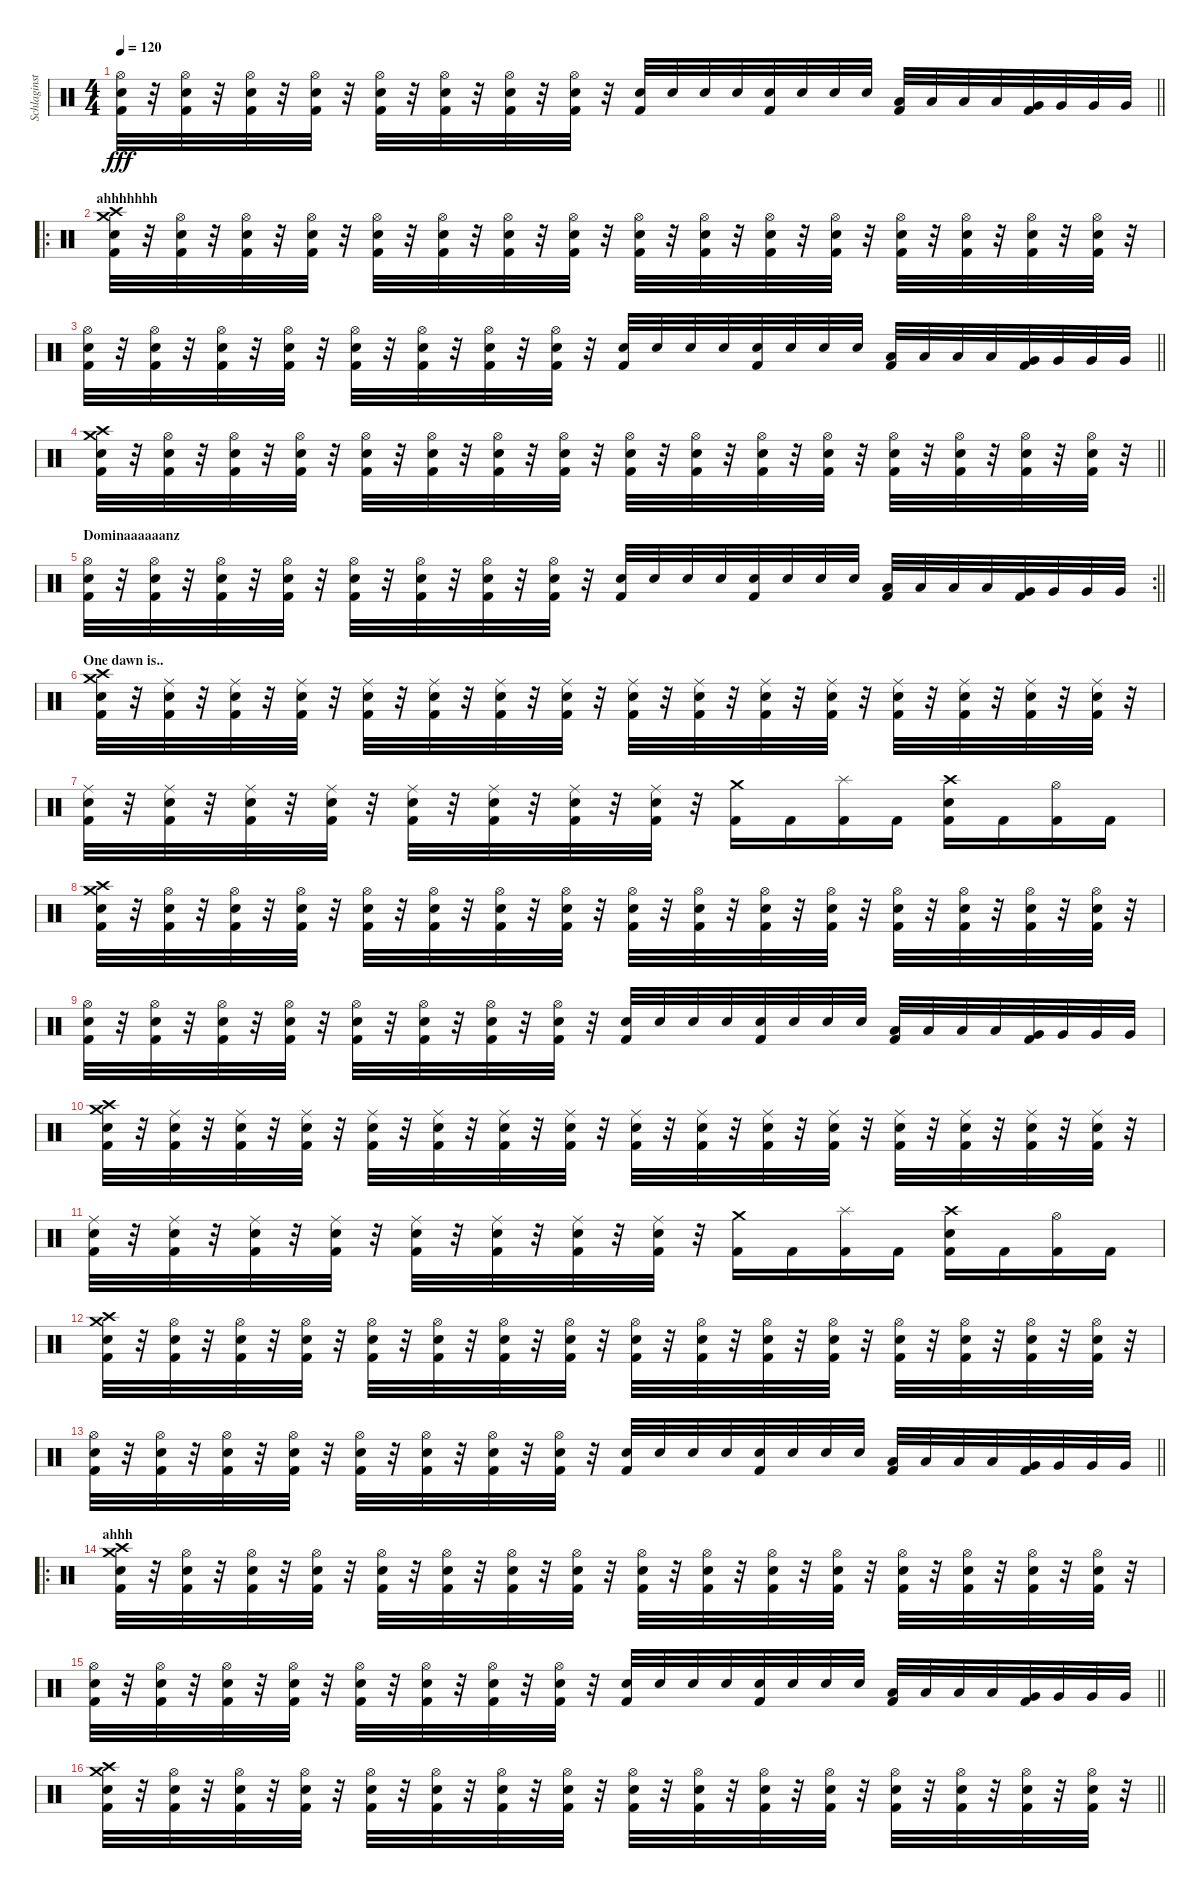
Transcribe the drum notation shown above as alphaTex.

\track ("Schlaginstrumente - Auswahl" "Schlaginst") {instrument percussion}
\staff {score}
\articulation defaults
\ts (4 4)
\tempo 120
\clef neutral
\barLineRight lightlight
\ks c
("Hi-Hat (open)" "Electric Snare (hit)" "Kick (hit) 2").32{dy fff} r.32 ("Hi-Hat (open)" "Electric Snare (hit)" "Kick (hit) 2").32 r.32 ("Hi-Hat (open)" "Electric Snare (hit)" "Kick (hit) 2").32 r.32 ("Hi-Hat (open)" "Electric Snare (hit)" "Kick (hit) 2").32 r.32 ("Hi-Hat (open)" "Electric Snare (hit)" "Kick (hit) 2").32 r.32 ("Hi-Hat (open)" "Electric Snare (hit)" "Kick (hit) 2").32 r.32 ("Hi-Hat (open)" "Electric Snare (hit)" "Kick (hit) 2").32 r.32 ("Hi-Hat (open)" "Electric Snare (hit)" "Kick (hit) 2").32 r.32 ("Electric Snare (hit)" "Kick (hit) 2").32 "Electric Snare (hit)".32 "Electric Snare (hit)".32 "Electric Snare (hit)".32 ("Electric Snare (hit)" "Kick (hit) 2").32 "Electric Snare (hit)".32 "Electric Snare (hit)".32 "Electric Snare (hit)".32 ("Low Tom (hit)" "Kick (hit) 2").32 "Low Tom (hit)".32 "Low Tom (hit)".32 "Low Tom (hit)".32 ("Very Low Tom (hit)" "Kick (hit) 2").32 "Very Low Tom (hit)".32 "Very Low Tom (hit)".32 "Very Low Tom (hit)".32 |
\ro
\section ("" "ahhhhhhh")
("Crash medium (hit)" "Crash high (hit)" "Electric Snare (hit)" "Kick (hit) 2").32 r.32 ("Hi-Hat (open)" "Electric Snare (hit)" "Kick (hit) 2").32 r.32 ("Hi-Hat (open)" "Electric Snare (hit)" "Kick (hit) 2").32 r.32 ("Hi-Hat (open)" "Electric Snare (hit)" "Kick (hit) 2").32 r.32 ("Hi-Hat (open)" "Electric Snare (hit)" "Kick (hit) 2").32 r.32 ("Hi-Hat (open)" "Electric Snare (hit)" "Kick (hit) 2").32 r.32 ("Hi-Hat (open)" "Electric Snare (hit)" "Kick (hit) 2").32 r.32 ("Hi-Hat (open)" "Electric Snare (hit)" "Kick (hit) 2").32 r.32 ("Hi-Hat (open)" "Electric Snare (hit)" "Kick (hit) 2").32 r.32 ("Hi-Hat (open)" "Electric Snare (hit)" "Kick (hit) 2").32 r.32 ("Hi-Hat (open)" "Electric Snare (hit)" "Kick (hit) 2").32 r.32 ("Hi-Hat (open)" "Electric Snare (hit)" "Kick (hit) 2").32 r.32 ("Hi-Hat (open)" "Electric Snare (hit)" "Kick (hit) 2").32 r.32 ("Hi-Hat (open)" "Electric Snare (hit)" "Kick (hit) 2").32 r.32 ("Hi-Hat (open)" "Electric Snare (hit)" "Kick (hit) 2").32 r.32 ("Hi-Hat (open)" "Electric Snare (hit)" "Kick (hit) 2").32 r.32 |
\barLineRight lightlight
("Hi-Hat (open)" "Electric Snare (hit)" "Kick (hit) 2").32 r.32 ("Hi-Hat (open)" "Electric Snare (hit)" "Kick (hit) 2").32 r.32 ("Hi-Hat (open)" "Electric Snare (hit)" "Kick (hit) 2").32 r.32 ("Hi-Hat (open)" "Electric Snare (hit)" "Kick (hit) 2").32 r.32 ("Hi-Hat (open)" "Electric Snare (hit)" "Kick (hit) 2").32 r.32 ("Hi-Hat (open)" "Electric Snare (hit)" "Kick (hit) 2").32 r.32 ("Hi-Hat (open)" "Electric Snare (hit)" "Kick (hit) 2").32 r.32 ("Hi-Hat (open)" "Electric Snare (hit)" "Kick (hit) 2").32 r.32 ("Electric Snare (hit)" "Kick (hit) 2").32 "Electric Snare (hit)".32 "Electric Snare (hit)".32 "Electric Snare (hit)".32 ("Electric Snare (hit)" "Kick (hit) 2").32 "Electric Snare (hit)".32 "Electric Snare (hit)".32 "Electric Snare (hit)".32 ("Low Tom (hit)" "Kick (hit) 2").32 "Low Tom (hit)".32 "Low Tom (hit)".32 "Low Tom (hit)".32 ("Very Low Tom (hit)" "Kick (hit) 2").32 "Very Low Tom (hit)".32 "Very Low Tom (hit)".32 "Very Low Tom (hit)".32 |
\barLineRight lightlight
("Crash medium (hit)" "Crash high (hit)" "Electric Snare (hit)" "Kick (hit) 2").32 r.32 ("Hi-Hat (open)" "Electric Snare (hit)" "Kick (hit) 2").32 r.32 ("Hi-Hat (open)" "Electric Snare (hit)" "Kick (hit) 2").32 r.32 ("Hi-Hat (open)" "Electric Snare (hit)" "Kick (hit) 2").32 r.32 ("Hi-Hat (open)" "Electric Snare (hit)" "Kick (hit) 2").32 r.32 ("Hi-Hat (open)" "Electric Snare (hit)" "Kick (hit) 2").32 r.32 ("Hi-Hat (open)" "Electric Snare (hit)" "Kick (hit) 2").32 r.32 ("Hi-Hat (open)" "Electric Snare (hit)" "Kick (hit) 2").32 r.32 ("Hi-Hat (open)" "Electric Snare (hit)" "Kick (hit) 2").32 r.32 ("Hi-Hat (open)" "Electric Snare (hit)" "Kick (hit) 2").32 r.32 ("Hi-Hat (open)" "Electric Snare (hit)" "Kick (hit) 2").32 r.32 ("Hi-Hat (open)" "Electric Snare (hit)" "Kick (hit) 2").32 r.32 ("Hi-Hat (open)" "Electric Snare (hit)" "Kick (hit) 2").32 r.32 ("Hi-Hat (open)" "Electric Snare (hit)" "Kick (hit) 2").32 r.32 ("Hi-Hat (open)" "Electric Snare (hit)" "Kick (hit) 2").32 r.32 ("Hi-Hat (open)" "Electric Snare (hit)" "Kick (hit) 2").32 r.32 |
\rc 2
\section ("" "Dominaaaaaanz")
\barLineRight lightlight
("Hi-Hat (open)" "Electric Snare (hit)" "Kick (hit) 2").32 r.32 ("Hi-Hat (open)" "Electric Snare (hit)" "Kick (hit) 2").32 r.32 ("Hi-Hat (open)" "Electric Snare (hit)" "Kick (hit) 2").32 r.32 ("Hi-Hat (open)" "Electric Snare (hit)" "Kick (hit) 2").32 r.32 ("Hi-Hat (open)" "Electric Snare (hit)" "Kick (hit) 2").32 r.32 ("Hi-Hat (open)" "Electric Snare (hit)" "Kick (hit) 2").32 r.32 ("Hi-Hat (open)" "Electric Snare (hit)" "Kick (hit) 2").32 r.32 ("Hi-Hat (open)" "Electric Snare (hit)" "Kick (hit) 2").32 r.32 ("Electric Snare (hit)" "Kick (hit) 2").32 "Electric Snare (hit)".32 "Electric Snare (hit)".32 "Electric Snare (hit)".32 ("Electric Snare (hit)" "Kick (hit) 2").32 "Electric Snare (hit)".32 "Electric Snare (hit)".32 "Electric Snare (hit)".32 ("Low Tom (hit)" "Kick (hit) 2").32 "Low Tom (hit)".32 "Low Tom (hit)".32 "Low Tom (hit)".32 ("Very Low Tom (hit)" "Kick (hit) 2").32 "Very Low Tom (hit)".32 "Very Low Tom (hit)".32 "Very Low Tom (hit)".32 |
\section ("" "One dawn is..")
("Crash medium (hit)" "Crash high (hit)" "Electric Snare (hit)" "Kick (hit) 2").32 r.32 ("Ride (middle)" "Electric Snare (hit)" "Kick (hit) 2").32 r.32 ("Ride (middle)" "Electric Snare (hit)" "Kick (hit) 2").32 r.32 ("Ride (middle)" "Electric Snare (hit)" "Kick (hit) 2").32 r.32 ("Ride (middle)" "Electric Snare (hit)" "Kick (hit) 2").32 r.32 ("Ride (middle)" "Electric Snare (hit)" "Kick (hit) 2").32 r.32 ("Ride (middle)" "Electric Snare (hit)" "Kick (hit) 2").32 r.32 ("Ride (middle)" "Electric Snare (hit)" "Kick (hit) 2").32 r.32 ("Ride (middle)" "Electric Snare (hit)" "Kick (hit) 2").32 r.32 ("Ride (middle)" "Electric Snare (hit)" "Kick (hit) 2").32 r.32 ("Ride (middle)" "Electric Snare (hit)" "Kick (hit) 2").32 r.32 ("Ride (middle)" "Electric Snare (hit)" "Kick (hit) 2").32 r.32 ("Ride (middle)" "Electric Snare (hit)" "Kick (hit) 2").32 r.32 ("Ride (middle)" "Electric Snare (hit)" "Kick (hit) 2").32 r.32 ("Ride (middle)" "Electric Snare (hit)" "Kick (hit) 2").32 r.32 ("Ride (middle)" "Electric Snare (hit)" "Kick (hit) 2").32 r.32 |
("Ride (middle)" "Electric Snare (hit)" "Kick (hit) 2").32 r.32 ("Ride (middle)" "Electric Snare (hit)" "Kick (hit) 2").32 r.32 ("Ride (middle)" "Electric Snare (hit)" "Kick (hit) 2").32 r.32 ("Ride (middle)" "Electric Snare (hit)" "Kick (hit) 2").32 r.32 ("Ride (middle)" "Electric Snare (hit)" "Kick (hit) 2").32 r.32 ("Ride (middle)" "Electric Snare (hit)" "Kick (hit) 2").32 r.32 ("Ride (middle)" "Electric Snare (hit)" "Kick (hit) 2").32 r.32 ("Ride (middle)" "Electric Snare (hit)" "Kick (hit) 2").32 r.32 ("Crash medium (hit)" "Kick (hit) 2").16 "Kick (hit) 2".16 ("Splash (hit)" "Kick (hit) 2").16 "Kick (hit) 2".16 ("Crash high (hit)" "Electric Snare (hit)" "Kick (hit) 2").16 "Kick (hit) 2".16 ("Hi-Hat (open)" "Kick (hit) 2").16 "Kick (hit) 2".16 |
("Crash medium (hit)" "Crash high (hit)" "Electric Snare (hit)" "Kick (hit) 2").32 r.32 ("Hi-Hat (open)" "Electric Snare (hit)" "Kick (hit) 2").32 r.32 ("Hi-Hat (open)" "Electric Snare (hit)" "Kick (hit) 2").32 r.32 ("Hi-Hat (open)" "Electric Snare (hit)" "Kick (hit) 2").32 r.32 ("Hi-Hat (open)" "Electric Snare (hit)" "Kick (hit) 2").32 r.32 ("Hi-Hat (open)" "Electric Snare (hit)" "Kick (hit) 2").32 r.32 ("Hi-Hat (open)" "Electric Snare (hit)" "Kick (hit) 2").32 r.32 ("Hi-Hat (open)" "Electric Snare (hit)" "Kick (hit) 2").32 r.32 ("Hi-Hat (open)" "Electric Snare (hit)" "Kick (hit) 2").32 r.32 ("Hi-Hat (open)" "Electric Snare (hit)" "Kick (hit) 2").32 r.32 ("Hi-Hat (open)" "Electric Snare (hit)" "Kick (hit) 2").32 r.32 ("Hi-Hat (open)" "Electric Snare (hit)" "Kick (hit) 2").32 r.32 ("Hi-Hat (open)" "Electric Snare (hit)" "Kick (hit) 2").32 r.32 ("Hi-Hat (open)" "Electric Snare (hit)" "Kick (hit) 2").32 r.32 ("Hi-Hat (open)" "Electric Snare (hit)" "Kick (hit) 2").32 r.32 ("Hi-Hat (open)" "Electric Snare (hit)" "Kick (hit) 2").32 r.32 |
("Hi-Hat (open)" "Electric Snare (hit)" "Kick (hit) 2").32 r.32 ("Hi-Hat (open)" "Electric Snare (hit)" "Kick (hit) 2").32 r.32 ("Hi-Hat (open)" "Electric Snare (hit)" "Kick (hit) 2").32 r.32 ("Hi-Hat (open)" "Electric Snare (hit)" "Kick (hit) 2").32 r.32 ("Hi-Hat (open)" "Electric Snare (hit)" "Kick (hit) 2").32 r.32 ("Hi-Hat (open)" "Electric Snare (hit)" "Kick (hit) 2").32 r.32 ("Hi-Hat (open)" "Electric Snare (hit)" "Kick (hit) 2").32 r.32 ("Hi-Hat (open)" "Electric Snare (hit)" "Kick (hit) 2").32 r.32 ("Electric Snare (hit)" "Kick (hit) 2").32 "Electric Snare (hit)".32 "Electric Snare (hit)".32 "Electric Snare (hit)".32 ("Electric Snare (hit)" "Kick (hit) 2").32 "Electric Snare (hit)".32 "Electric Snare (hit)".32 "Electric Snare (hit)".32 ("Low Tom (hit)" "Kick (hit) 2").32 "Low Tom (hit)".32 "Low Tom (hit)".32 "Low Tom (hit)".32 ("Very Low Tom (hit)" "Kick (hit) 2").32 "Very Low Tom (hit)".32 "Very Low Tom (hit)".32 "Very Low Tom (hit)".32 |
("Crash medium (hit)" "Crash high (hit)" "Electric Snare (hit)" "Kick (hit) 2").32 r.32 ("Ride (middle)" "Electric Snare (hit)" "Kick (hit) 2").32 r.32 ("Ride (middle)" "Electric Snare (hit)" "Kick (hit) 2").32 r.32 ("Ride (middle)" "Electric Snare (hit)" "Kick (hit) 2").32 r.32 ("Ride (middle)" "Electric Snare (hit)" "Kick (hit) 2").32 r.32 ("Ride (middle)" "Electric Snare (hit)" "Kick (hit) 2").32 r.32 ("Ride (middle)" "Electric Snare (hit)" "Kick (hit) 2").32 r.32 ("Ride (middle)" "Electric Snare (hit)" "Kick (hit) 2").32 r.32 ("Ride (middle)" "Electric Snare (hit)" "Kick (hit) 2").32 r.32 ("Ride (middle)" "Electric Snare (hit)" "Kick (hit) 2").32 r.32 ("Ride (middle)" "Electric Snare (hit)" "Kick (hit) 2").32 r.32 ("Ride (middle)" "Electric Snare (hit)" "Kick (hit) 2").32 r.32 ("Ride (middle)" "Electric Snare (hit)" "Kick (hit) 2").32 r.32 ("Ride (middle)" "Electric Snare (hit)" "Kick (hit) 2").32 r.32 ("Ride (middle)" "Electric Snare (hit)" "Kick (hit) 2").32 r.32 ("Ride (middle)" "Electric Snare (hit)" "Kick (hit) 2").32 r.32 |
("Ride (middle)" "Electric Snare (hit)" "Kick (hit) 2").32 r.32 ("Ride (middle)" "Electric Snare (hit)" "Kick (hit) 2").32 r.32 ("Ride (middle)" "Electric Snare (hit)" "Kick (hit) 2").32 r.32 ("Ride (middle)" "Electric Snare (hit)" "Kick (hit) 2").32 r.32 ("Ride (middle)" "Electric Snare (hit)" "Kick (hit) 2").32 r.32 ("Ride (middle)" "Electric Snare (hit)" "Kick (hit) 2").32 r.32 ("Ride (middle)" "Electric Snare (hit)" "Kick (hit) 2").32 r.32 ("Ride (middle)" "Electric Snare (hit)" "Kick (hit) 2").32 r.32 ("Crash medium (hit)" "Kick (hit) 2").16 "Kick (hit) 2".16 ("Splash (hit)" "Kick (hit) 2").16 "Kick (hit) 2".16 ("Crash high (hit)" "Electric Snare (hit)" "Kick (hit) 2").16 "Kick (hit) 2".16 ("Hi-Hat (open)" "Kick (hit) 2").16 "Kick (hit) 2".16 |
("Crash medium (hit)" "Crash high (hit)" "Electric Snare (hit)" "Kick (hit) 2").32 r.32 ("Hi-Hat (open)" "Electric Snare (hit)" "Kick (hit) 2").32 r.32 ("Hi-Hat (open)" "Electric Snare (hit)" "Kick (hit) 2").32 r.32 ("Hi-Hat (open)" "Electric Snare (hit)" "Kick (hit) 2").32 r.32 ("Hi-Hat (open)" "Electric Snare (hit)" "Kick (hit) 2").32 r.32 ("Hi-Hat (open)" "Electric Snare (hit)" "Kick (hit) 2").32 r.32 ("Hi-Hat (open)" "Electric Snare (hit)" "Kick (hit) 2").32 r.32 ("Hi-Hat (open)" "Electric Snare (hit)" "Kick (hit) 2").32 r.32 ("Hi-Hat (open)" "Electric Snare (hit)" "Kick (hit) 2").32 r.32 ("Hi-Hat (open)" "Electric Snare (hit)" "Kick (hit) 2").32 r.32 ("Hi-Hat (open)" "Electric Snare (hit)" "Kick (hit) 2").32 r.32 ("Hi-Hat (open)" "Electric Snare (hit)" "Kick (hit) 2").32 r.32 ("Hi-Hat (open)" "Electric Snare (hit)" "Kick (hit) 2").32 r.32 ("Hi-Hat (open)" "Electric Snare (hit)" "Kick (hit) 2").32 r.32 ("Hi-Hat (open)" "Electric Snare (hit)" "Kick (hit) 2").32 r.32 ("Hi-Hat (open)" "Electric Snare (hit)" "Kick (hit) 2").32 r.32 |
\barLineRight lightlight
("Hi-Hat (open)" "Electric Snare (hit)" "Kick (hit) 2").32 r.32 ("Hi-Hat (open)" "Electric Snare (hit)" "Kick (hit) 2").32 r.32 ("Hi-Hat (open)" "Electric Snare (hit)" "Kick (hit) 2").32 r.32 ("Hi-Hat (open)" "Electric Snare (hit)" "Kick (hit) 2").32 r.32 ("Hi-Hat (open)" "Electric Snare (hit)" "Kick (hit) 2").32 r.32 ("Hi-Hat (open)" "Electric Snare (hit)" "Kick (hit) 2").32 r.32 ("Hi-Hat (open)" "Electric Snare (hit)" "Kick (hit) 2").32 r.32 ("Hi-Hat (open)" "Electric Snare (hit)" "Kick (hit) 2").32 r.32 ("Electric Snare (hit)" "Kick (hit) 2").32 "Electric Snare (hit)".32 "Electric Snare (hit)".32 "Electric Snare (hit)".32 ("Electric Snare (hit)" "Kick (hit) 2").32 "Electric Snare (hit)".32 "Electric Snare (hit)".32 "Electric Snare (hit)".32 ("Low Tom (hit)" "Kick (hit) 2").32 "Low Tom (hit)".32 "Low Tom (hit)".32 "Low Tom (hit)".32 ("Very Low Tom (hit)" "Kick (hit) 2").32 "Very Low Tom (hit)".32 "Very Low Tom (hit)".32 "Very Low Tom (hit)".32 |
\ro
\section ("" "ahhh")
("Crash medium (hit)" "Crash high (hit)" "Electric Snare (hit)" "Kick (hit) 2").32 r.32 ("Hi-Hat (open)" "Electric Snare (hit)" "Kick (hit) 2").32 r.32 ("Hi-Hat (open)" "Electric Snare (hit)" "Kick (hit) 2").32 r.32 ("Hi-Hat (open)" "Electric Snare (hit)" "Kick (hit) 2").32 r.32 ("Hi-Hat (open)" "Electric Snare (hit)" "Kick (hit) 2").32 r.32 ("Hi-Hat (open)" "Electric Snare (hit)" "Kick (hit) 2").32 r.32 ("Hi-Hat (open)" "Electric Snare (hit)" "Kick (hit) 2").32 r.32 ("Hi-Hat (open)" "Electric Snare (hit)" "Kick (hit) 2").32 r.32 ("Hi-Hat (open)" "Electric Snare (hit)" "Kick (hit) 2").32 r.32 ("Hi-Hat (open)" "Electric Snare (hit)" "Kick (hit) 2").32 r.32 ("Hi-Hat (open)" "Electric Snare (hit)" "Kick (hit) 2").32 r.32 ("Hi-Hat (open)" "Electric Snare (hit)" "Kick (hit) 2").32 r.32 ("Hi-Hat (open)" "Electric Snare (hit)" "Kick (hit) 2").32 r.32 ("Hi-Hat (open)" "Electric Snare (hit)" "Kick (hit) 2").32 r.32 ("Hi-Hat (open)" "Electric Snare (hit)" "Kick (hit) 2").32 r.32 ("Hi-Hat (open)" "Electric Snare (hit)" "Kick (hit) 2").32 r.32 |
\barLineRight lightlight
("Hi-Hat (open)" "Electric Snare (hit)" "Kick (hit) 2").32 r.32 ("Hi-Hat (open)" "Electric Snare (hit)" "Kick (hit) 2").32 r.32 ("Hi-Hat (open)" "Electric Snare (hit)" "Kick (hit) 2").32 r.32 ("Hi-Hat (open)" "Electric Snare (hit)" "Kick (hit) 2").32 r.32 ("Hi-Hat (open)" "Electric Snare (hit)" "Kick (hit) 2").32 r.32 ("Hi-Hat (open)" "Electric Snare (hit)" "Kick (hit) 2").32 r.32 ("Hi-Hat (open)" "Electric Snare (hit)" "Kick (hit) 2").32 r.32 ("Hi-Hat (open)" "Electric Snare (hit)" "Kick (hit) 2").32 r.32 ("Electric Snare (hit)" "Kick (hit) 2").32 "Electric Snare (hit)".32 "Electric Snare (hit)".32 "Electric Snare (hit)".32 ("Electric Snare (hit)" "Kick (hit) 2").32 "Electric Snare (hit)".32 "Electric Snare (hit)".32 "Electric Snare (hit)".32 ("Low Tom (hit)" "Kick (hit) 2").32 "Low Tom (hit)".32 "Low Tom (hit)".32 "Low Tom (hit)".32 ("Very Low Tom (hit)" "Kick (hit) 2").32 "Very Low Tom (hit)".32 "Very Low Tom (hit)".32 "Very Low Tom (hit)".32 |
\barLineRight lightlight
("Crash medium (hit)" "Crash high (hit)" "Electric Snare (hit)" "Kick (hit) 2").32 r.32 ("Hi-Hat (open)" "Electric Snare (hit)" "Kick (hit) 2").32 r.32 ("Hi-Hat (open)" "Electric Snare (hit)" "Kick (hit) 2").32 r.32 ("Hi-Hat (open)" "Electric Snare (hit)" "Kick (hit) 2").32 r.32 ("Hi-Hat (open)" "Electric Snare (hit)" "Kick (hit) 2").32 r.32 ("Hi-Hat (open)" "Electric Snare (hit)" "Kick (hit) 2").32 r.32 ("Hi-Hat (open)" "Electric Snare (hit)" "Kick (hit) 2").32 r.32 ("Hi-Hat (open)" "Electric Snare (hit)" "Kick (hit) 2").32 r.32 ("Hi-Hat (open)" "Electric Snare (hit)" "Kick (hit) 2").32 r.32 ("Hi-Hat (open)" "Electric Snare (hit)" "Kick (hit) 2").32 r.32 ("Hi-Hat (open)" "Electric Snare (hit)" "Kick (hit) 2").32 r.32 ("Hi-Hat (open)" "Electric Snare (hit)" "Kick (hit) 2").32 r.32 ("Hi-Hat (open)" "Electric Snare (hit)" "Kick (hit) 2").32 r.32 ("Hi-Hat (open)" "Electric Snare (hit)" "Kick (hit) 2").32 r.32 ("Hi-Hat (open)" "Electric Snare (hit)" "Kick (hit) 2").32 r.32 ("Hi-Hat (open)" "Electric Snare (hit)" "Kick (hit) 2").32 r.32
